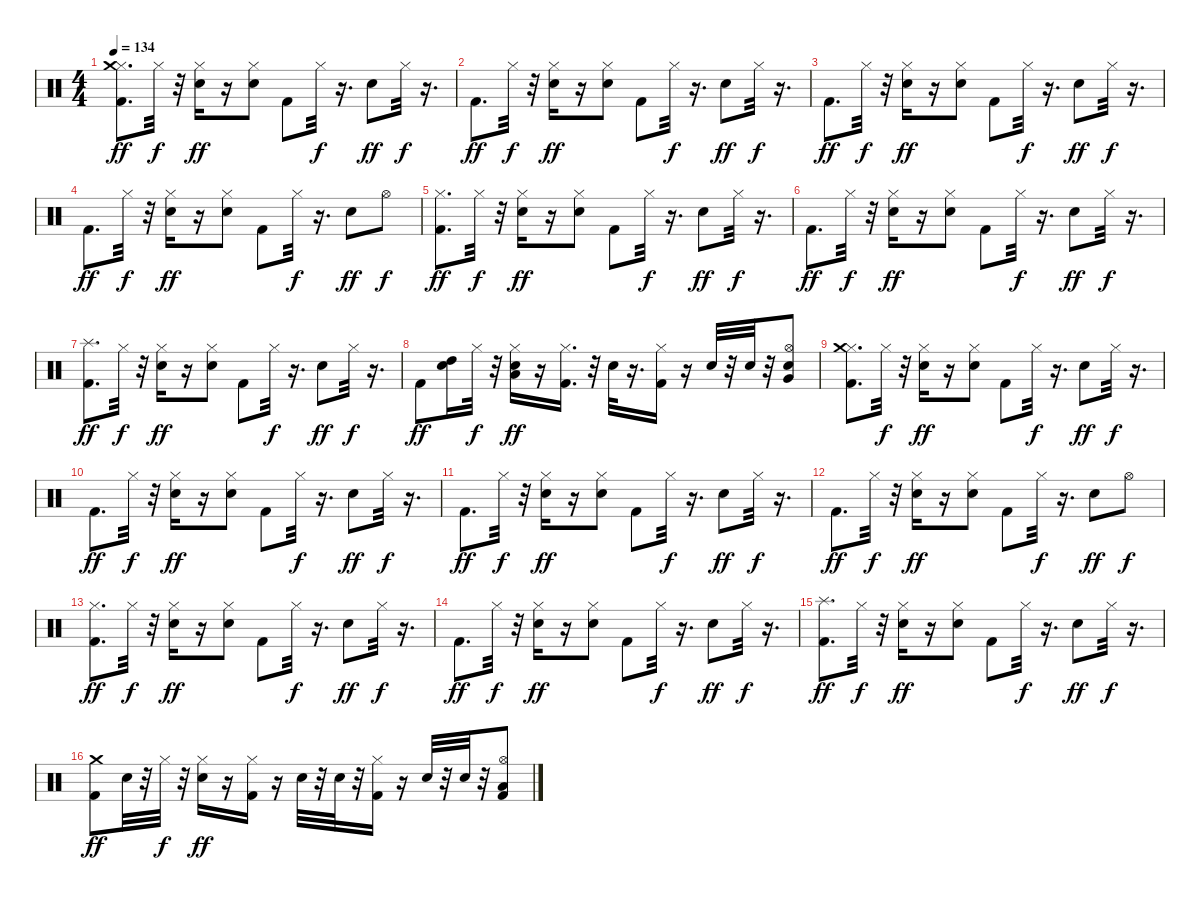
\track "" {instrument percussion}
\staff {score}
\articulation defaults
\ts (4 4)
\tempo 134
\clef neutral
\ks c
("Hi-Hat (closed)" "Kick (hit) 2" "Crash medium (hit)").8{d dy ff} "Hi-Hat (closed)".32{dy f} r.32 ("Snare (hit) 2" "Hi-Hat (closed)").16{dy ff} r.16 ("Snare (hit) 2" "Hi-Hat (closed)").8 "Kick (hit) 2".8 "Hi-Hat (closed)".32{dy f} r.16{d} "Snare (hit) 2".8{dy ff} "Hi-Hat (closed)".32{dy f} r.16{d} |
"Kick (hit) 2".8{d dy ff} "Hi-Hat (closed)".32{dy f} r.32 ("Hi-Hat (closed)" "Snare (hit) 2").16{dy ff} r.16 ("Hi-Hat (closed)" "Snare (hit) 2").8 "Kick (hit) 2".8 "Hi-Hat (closed)".32{dy f} r.16{d} "Snare (hit) 2".8{dy ff} "Hi-Hat (closed)".32{dy f} r.16{d} |
"Kick (hit) 2".8{d dy ff} "Hi-Hat (closed)".32{dy f} r.32 ("Snare (hit) 2" "Hi-Hat (closed)").16{dy ff} r.16 ("Snare (hit) 2" "Hi-Hat (closed)").8 "Kick (hit) 2".8 "Hi-Hat (closed)".32{dy f} r.16{d} "Snare (hit) 2".8{dy ff} "Hi-Hat (closed)".32{dy f} r.16{d} |
"Kick (hit) 2".8{d dy ff} "Hi-Hat (closed)".32{dy f} r.32 ("Snare (hit) 2" "Hi-Hat (closed)").16{dy ff} r.16 ("Snare (hit) 2" "Hi-Hat (closed)").8 "Kick (hit) 2".8 "Hi-Hat (closed)".32{dy f} r.16{d} "Snare (hit) 2".8{dy ff} "Hi-Hat (open)".8{dy f} |
("Kick (hit) 2" "Hi-Hat (closed)").8{d dy ff} "Hi-Hat (closed)".32{dy f} r.32 ("Hi-Hat (closed)" "Snare (hit) 2").16{dy ff} r.16 ("Snare (hit) 2" "Hi-Hat (closed)").8 "Kick (hit) 2".8 "Hi-Hat (closed)".32{dy f} r.16{d} "Snare (hit) 2".8{dy ff} "Hi-Hat (closed)".32{dy f} r.16{d} |
"Kick (hit) 2".8{d dy ff} "Hi-Hat (closed)".32{dy f} r.32 ("Snare (hit) 2" "Hi-Hat (closed)").16{dy ff} r.16 ("Snare (hit) 2" "Hi-Hat (closed)").8 "Kick (hit) 2".8 "Hi-Hat (closed)".32{dy f} r.16{d} "Snare (hit) 2".8{dy ff} "Hi-Hat (closed)".32{dy f} r.16{d} |
("Kick (hit) 2" "Splash (hit)").8{d dy ff} "Hi-Hat (closed)".32{dy f} r.32 ("Hi-Hat (closed)" "Snare (hit) 2").16{dy ff} r.16 ("Hi-Hat (closed)" "Snare (hit) 2").8 "Kick (hit) 2".8 "Hi-Hat (closed)".32{dy f} r.16{d} "Snare (hit) 2".8{dy ff} "Hi-Hat (closed)".32{dy f} r.16{d} |
"Kick (hit) 2".8{dy ff} ("High Tom (hit)" "Snare (hit) 2").16 "Hi-Hat (closed)".32{dy f} r.32 ("Hi-Hat (closed)" "Low Tom (hit)" "Snare (hit) 2").16{dy ff} r.16 ("Kick (hit) 2" "Hi-Hat (closed)").16{d} r.32 "Snare (hit) 2".32 r.16{d} ("Kick (hit) 2" "Hi-Hat (closed)").16 r.16 "Snare (hit) 2".32 r.32 "Snare (hit) 2".32 r.32 ("Hi-Hat (open)" "Very Low Tom (hit)" "Snare (hit) 2").8 |
("Hi-Hat (closed)" "Kick (hit) 2" "Crash medium (hit)").8{d} "Hi-Hat (closed)".32{dy f} r.32 ("Hi-Hat (closed)" "Snare (hit) 2").16{dy ff} r.16 ("Hi-Hat (closed)" "Snare (hit) 2").8 "Kick (hit) 2".8 "Hi-Hat (closed)".32{dy f} r.16{d} "Snare (hit) 2".8{dy ff} "Hi-Hat (closed)".32{dy f} r.16{d} |
"Kick (hit) 2".8{d dy ff} "Hi-Hat (closed)".32{dy f} r.32 ("Snare (hit) 2" "Hi-Hat (closed)").16{dy ff} r.16 ("Hi-Hat (closed)" "Snare (hit) 2").8 "Kick (hit) 2".8 "Hi-Hat (closed)".32{dy f} r.16{d} "Snare (hit) 2".8{dy ff} "Hi-Hat (closed)".32{dy f} r.16{d} |
"Kick (hit) 2".8{d dy ff} "Hi-Hat (closed)".32{dy f} r.32 ("Snare (hit) 2" "Hi-Hat (closed)").16{dy ff} r.16 ("Hi-Hat (closed)" "Snare (hit) 2").8 "Kick (hit) 2".8 "Hi-Hat (closed)".32{dy f} r.16{d} "Snare (hit) 2".8{dy ff} "Hi-Hat (closed)".32{dy f} r.16{d} |
"Kick (hit) 2".8{d dy ff} "Hi-Hat (closed)".32{dy f} r.32 ("Hi-Hat (closed)" "Snare (hit) 2").16{dy ff} r.16 ("Hi-Hat (closed)" "Snare (hit) 2").8 "Kick (hit) 2".8 "Hi-Hat (closed)".32{dy f} r.16{d} "Snare (hit) 2".8{dy ff} "Hi-Hat (open)".8{dy f} |
("Kick (hit) 2" "Hi-Hat (closed)").8{d dy ff} "Hi-Hat (closed)".32{dy f} r.32 ("Snare (hit) 2" "Hi-Hat (closed)").16{dy ff} r.16 ("Hi-Hat (closed)" "Snare (hit) 2").8 "Kick (hit) 2".8 "Hi-Hat (closed)".32{dy f} r.16{d} "Snare (hit) 2".8{dy ff} "Hi-Hat (closed)".32{dy f} r.16{d} |
"Kick (hit) 2".8{d dy ff} "Hi-Hat (closed)".32{dy f} r.32 ("Snare (hit) 2" "Hi-Hat (closed)").16{dy ff} r.16 ("Hi-Hat (closed)" "Snare (hit) 2").8 "Kick (hit) 2".8 "Hi-Hat (closed)".32{dy f} r.16{d} "Snare (hit) 2".8{dy ff} "Hi-Hat (closed)".32{dy f} r.16{d} |
("Splash (hit)" "Kick (hit) 2").8{d dy ff} "Hi-Hat (closed)".32{dy f} r.32 ("Snare (hit) 2" "Hi-Hat (closed)").16{dy ff} r.16 ("Snare (hit) 2" "Hi-Hat (closed)").8 "Kick (hit) 2".8 "Hi-Hat (closed)".32{dy f} r.16{d} "Snare (hit) 2".8{dy ff} "Hi-Hat (closed)".32{dy f} r.16{d} |
("Crash medium (hit)" "Kick (hit) 2").8{dy ff} "Snare (hit) 2".32 r.32 "Hi-Hat (closed)".32{dy f} r.32 ("Hi-Hat (closed)" "Snare (hit) 2").16{dy ff} r.16 ("Kick (hit) 2" "Hi-Hat (closed)").16 r.16 "Snare (hit) 2".32 r.32 "Snare (hit) 2".32 r.32 ("Kick (hit) 2" "Hi-Hat (closed)").16 r.16 "Snare (hit) 2".32 r.32 "Snare (hit) 2".32 r.32 ("Kick (hit) 2" "Low Tom (hit)" "Hi-Hat (open)").8
